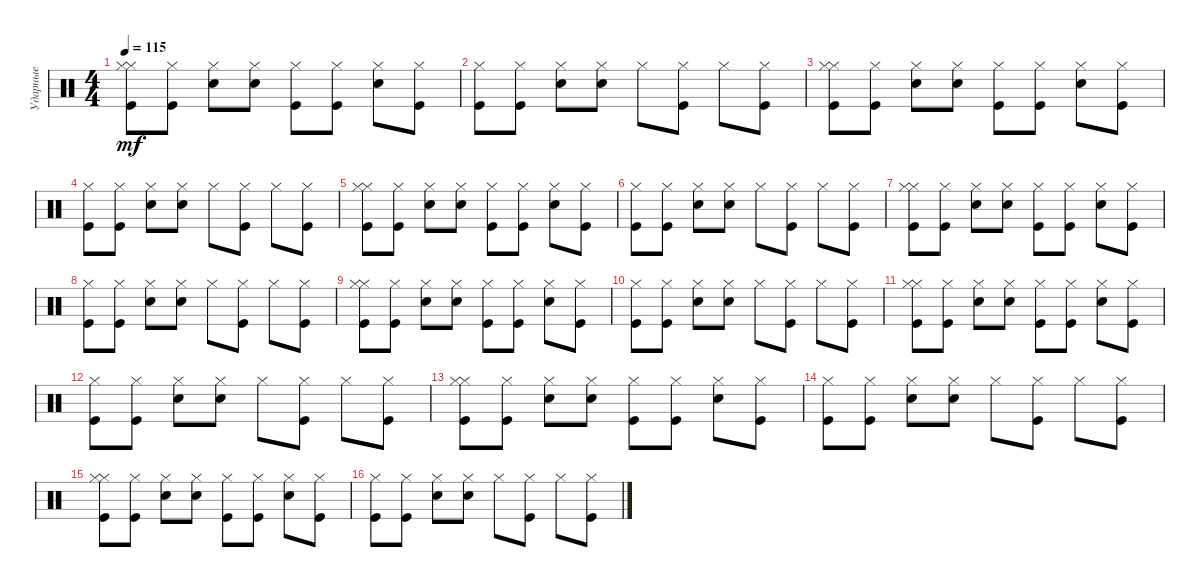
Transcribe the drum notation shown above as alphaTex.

\track ("Ударные" "Ударные") {instrument percussion}
\staff {score}
\articulation defaults
\ts (4 4)
\tempo 115
\clef neutral
\ks c
("Hi-Hat (closed)" "Kick (hit)" "Hi-Hat (closed)").8{dy mf} ("Hi-Hat (closed)" "Kick (hit)").8 ("Snare (hit) 2" "Hi-Hat (closed)").8 ("Snare (hit) 2" "Hi-Hat (closed)").8 ("Hi-Hat (closed)" "Kick (hit)").8 ("Hi-Hat (closed)" "Kick (hit)").8 ("Hi-Hat (closed)" "Snare (hit) 2").8 ("Hi-Hat (closed)" "Kick (hit)").8 |
("Hi-Hat (closed)" "Kick (hit)").8 ("Hi-Hat (closed)" "Kick (hit)").8 ("Snare (hit) 2" "Hi-Hat (closed)").8 ("Snare (hit) 2" "Hi-Hat (closed)").8 "Hi-Hat (closed)".8 ("Hi-Hat (closed)" "Kick (hit)").8 "Hi-Hat (closed)".8 ("Hi-Hat (closed)" "Kick (hit)").8 |
("Hi-Hat (closed)" "Kick (hit)" "Hi-Hat (closed)").8 ("Hi-Hat (closed)" "Kick (hit)").8 ("Snare (hit) 2" "Hi-Hat (closed)").8 ("Snare (hit) 2" "Hi-Hat (closed)").8 ("Hi-Hat (closed)" "Kick (hit)").8 ("Hi-Hat (closed)" "Kick (hit)").8 ("Hi-Hat (closed)" "Snare (hit) 2").8 ("Hi-Hat (closed)" "Kick (hit)").8 |
("Hi-Hat (closed)" "Kick (hit)").8 ("Hi-Hat (closed)" "Kick (hit)").8 ("Snare (hit) 2" "Hi-Hat (closed)").8 ("Snare (hit) 2" "Hi-Hat (closed)").8 "Hi-Hat (closed)".8 ("Hi-Hat (closed)" "Kick (hit)").8 "Hi-Hat (closed)".8 ("Hi-Hat (closed)" "Kick (hit)").8 |
("Hi-Hat (closed)" "Kick (hit)" "Hi-Hat (closed)").8 ("Hi-Hat (closed)" "Kick (hit)").8 ("Snare (hit) 2" "Hi-Hat (closed)").8 ("Snare (hit) 2" "Hi-Hat (closed)").8 ("Hi-Hat (closed)" "Kick (hit)").8 ("Hi-Hat (closed)" "Kick (hit)").8 ("Hi-Hat (closed)" "Snare (hit) 2").8 ("Hi-Hat (closed)" "Kick (hit)").8 |
("Hi-Hat (closed)" "Kick (hit)").8 ("Hi-Hat (closed)" "Kick (hit)").8 ("Snare (hit) 2" "Hi-Hat (closed)").8 ("Snare (hit) 2" "Hi-Hat (closed)").8 "Hi-Hat (closed)".8 ("Hi-Hat (closed)" "Kick (hit)").8 "Hi-Hat (closed)".8 ("Hi-Hat (closed)" "Kick (hit)").8 |
("Hi-Hat (closed)" "Kick (hit)" "Hi-Hat (closed)").8 ("Hi-Hat (closed)" "Kick (hit)").8 ("Snare (hit) 2" "Hi-Hat (closed)").8 ("Snare (hit) 2" "Hi-Hat (closed)").8 ("Hi-Hat (closed)" "Kick (hit)").8 ("Hi-Hat (closed)" "Kick (hit)").8 ("Hi-Hat (closed)" "Snare (hit) 2").8 ("Hi-Hat (closed)" "Kick (hit)").8 |
("Hi-Hat (closed)" "Kick (hit)").8 ("Hi-Hat (closed)" "Kick (hit)").8 ("Snare (hit) 2" "Hi-Hat (closed)").8 ("Snare (hit) 2" "Hi-Hat (closed)").8 "Hi-Hat (closed)".8 ("Hi-Hat (closed)" "Kick (hit)").8 "Hi-Hat (closed)".8 ("Hi-Hat (closed)" "Kick (hit)").8 |
("Hi-Hat (closed)" "Kick (hit)" "Hi-Hat (closed)").8 ("Hi-Hat (closed)" "Kick (hit)").8 ("Snare (hit) 2" "Hi-Hat (closed)").8 ("Snare (hit) 2" "Hi-Hat (closed)").8 ("Hi-Hat (closed)" "Kick (hit)").8 ("Hi-Hat (closed)" "Kick (hit)").8 ("Hi-Hat (closed)" "Snare (hit) 2").8 ("Hi-Hat (closed)" "Kick (hit)").8 |
("Hi-Hat (closed)" "Kick (hit)").8 ("Hi-Hat (closed)" "Kick (hit)").8 ("Snare (hit) 2" "Hi-Hat (closed)").8 ("Snare (hit) 2" "Hi-Hat (closed)").8 "Hi-Hat (closed)".8 ("Hi-Hat (closed)" "Kick (hit)").8 "Hi-Hat (closed)".8 ("Hi-Hat (closed)" "Kick (hit)").8 |
("Hi-Hat (closed)" "Kick (hit)" "Hi-Hat (closed)").8 ("Hi-Hat (closed)" "Kick (hit)").8 ("Snare (hit) 2" "Hi-Hat (closed)").8 ("Snare (hit) 2" "Hi-Hat (closed)").8 ("Hi-Hat (closed)" "Kick (hit)").8 ("Hi-Hat (closed)" "Kick (hit)").8 ("Hi-Hat (closed)" "Snare (hit) 2").8 ("Hi-Hat (closed)" "Kick (hit)").8 |
("Hi-Hat (closed)" "Kick (hit)").8 ("Hi-Hat (closed)" "Kick (hit)").8 ("Snare (hit) 2" "Hi-Hat (closed)").8 ("Snare (hit) 2" "Hi-Hat (closed)").8 "Hi-Hat (closed)".8 ("Hi-Hat (closed)" "Kick (hit)").8 "Hi-Hat (closed)".8 ("Hi-Hat (closed)" "Kick (hit)").8 |
("Hi-Hat (closed)" "Kick (hit)" "Hi-Hat (closed)").8 ("Hi-Hat (closed)" "Kick (hit)").8 ("Snare (hit) 2" "Hi-Hat (closed)").8 ("Snare (hit) 2" "Hi-Hat (closed)").8 ("Hi-Hat (closed)" "Kick (hit)").8 ("Hi-Hat (closed)" "Kick (hit)").8 ("Hi-Hat (closed)" "Snare (hit) 2").8 ("Hi-Hat (closed)" "Kick (hit)").8 |
("Hi-Hat (closed)" "Kick (hit)").8 ("Hi-Hat (closed)" "Kick (hit)").8 ("Snare (hit) 2" "Hi-Hat (closed)").8 ("Snare (hit) 2" "Hi-Hat (closed)").8 "Hi-Hat (closed)".8 ("Hi-Hat (closed)" "Kick (hit)").8 "Hi-Hat (closed)".8 ("Hi-Hat (closed)" "Kick (hit)").8 |
("Hi-Hat (closed)" "Kick (hit)" "Hi-Hat (closed)").8 ("Hi-Hat (closed)" "Kick (hit)").8 ("Snare (hit) 2" "Hi-Hat (closed)").8 ("Snare (hit) 2" "Hi-Hat (closed)").8 ("Hi-Hat (closed)" "Kick (hit)").8 ("Hi-Hat (closed)" "Kick (hit)").8 ("Hi-Hat (closed)" "Snare (hit) 2").8 ("Hi-Hat (closed)" "Kick (hit)").8 |
("Hi-Hat (closed)" "Kick (hit)").8 ("Hi-Hat (closed)" "Kick (hit)").8 ("Snare (hit) 2" "Hi-Hat (closed)").8 ("Snare (hit) 2" "Hi-Hat (closed)").8 "Hi-Hat (closed)".8 ("Hi-Hat (closed)" "Kick (hit)").8 "Hi-Hat (closed)".8 ("Hi-Hat (closed)" "Kick (hit)").8
